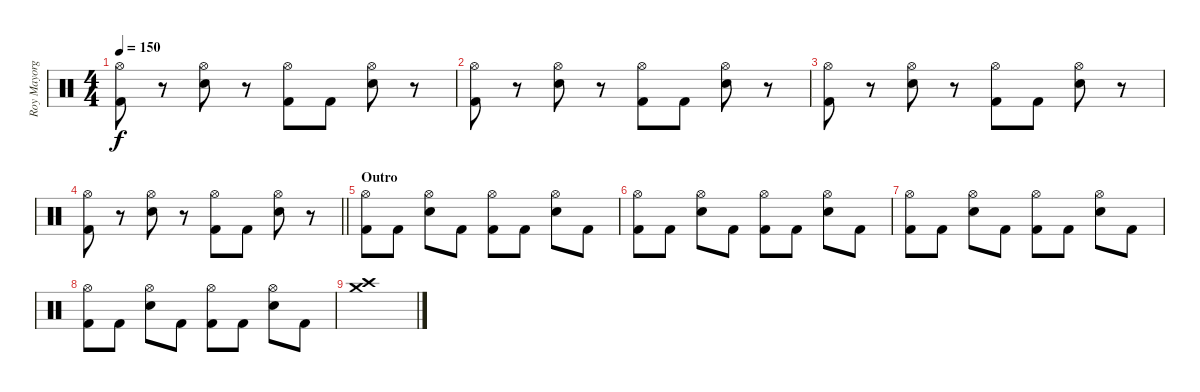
\track ("Roy Mayorga" "Roy Mayorg") {instrument percussion}
\staff {score}
\articulation defaults
\ts (4 4)
\tempo 150
\clef neutral
\ks c
("Hi-Hat (open)" "Kick (hit) 2").8{dy f} r.8 ("Hi-Hat (open)" "Electric Snare (hit)").8 r.8 ("Hi-Hat (open)" "Kick (hit) 2").8 "Kick (hit) 2".8 ("Hi-Hat (open)" "Electric Snare (hit)").8 r.8 |
("Hi-Hat (open)" "Kick (hit) 2").8 r.8 ("Hi-Hat (open)" "Electric Snare (hit)").8 r.8 ("Hi-Hat (open)" "Kick (hit) 2").8 "Kick (hit) 2".8 ("Hi-Hat (open)" "Electric Snare (hit)").8 r.8 |
("Hi-Hat (open)" "Kick (hit) 2").8 r.8 ("Hi-Hat (open)" "Electric Snare (hit)").8 r.8 ("Hi-Hat (open)" "Kick (hit) 2").8 "Kick (hit) 2".8 ("Hi-Hat (open)" "Electric Snare (hit)").8 r.8 |
\barLineRight lightlight
("Hi-Hat (open)" "Kick (hit) 2").8 r.8 ("Hi-Hat (open)" "Electric Snare (hit)").8 r.8 ("Hi-Hat (open)" "Kick (hit) 2").8 "Kick (hit) 2".8 ("Hi-Hat (open)" "Electric Snare (hit)").8 r.8 |
\section ("" "Outro")
("Hi-Hat (open)" "Kick (hit) 2").8 "Kick (hit) 2".8 ("Hi-Hat (open)" "Electric Snare (hit)").8 "Kick (hit) 2".8 ("Hi-Hat (open)" "Kick (hit) 2").8 "Kick (hit) 2".8 ("Hi-Hat (open)" "Electric Snare (hit)").8 "Kick (hit) 2".8 |
("Hi-Hat (open)" "Kick (hit) 2").8 "Kick (hit) 2".8 ("Hi-Hat (open)" "Electric Snare (hit)").8 "Kick (hit) 2".8 ("Hi-Hat (open)" "Kick (hit) 2").8 "Kick (hit) 2".8 ("Hi-Hat (open)" "Electric Snare (hit)").8 "Kick (hit) 2".8 |
("Hi-Hat (open)" "Kick (hit) 2").8 "Kick (hit) 2".8 ("Hi-Hat (open)" "Electric Snare (hit)").8 "Kick (hit) 2".8 ("Hi-Hat (open)" "Kick (hit) 2").8 "Kick (hit) 2".8 ("Hi-Hat (open)" "Electric Snare (hit)").8 "Kick (hit) 2".8 |
("Hi-Hat (open)" "Kick (hit) 2").8 "Kick (hit) 2".8 ("Hi-Hat (open)" "Electric Snare (hit)").8 "Kick (hit) 2".8 ("Hi-Hat (open)" "Kick (hit) 2").8 "Kick (hit) 2".8 ("Hi-Hat (open)" "Electric Snare (hit)").8 "Kick (hit) 2".8 |
("Crash high (hit)" "Crash medium (hit)").1
